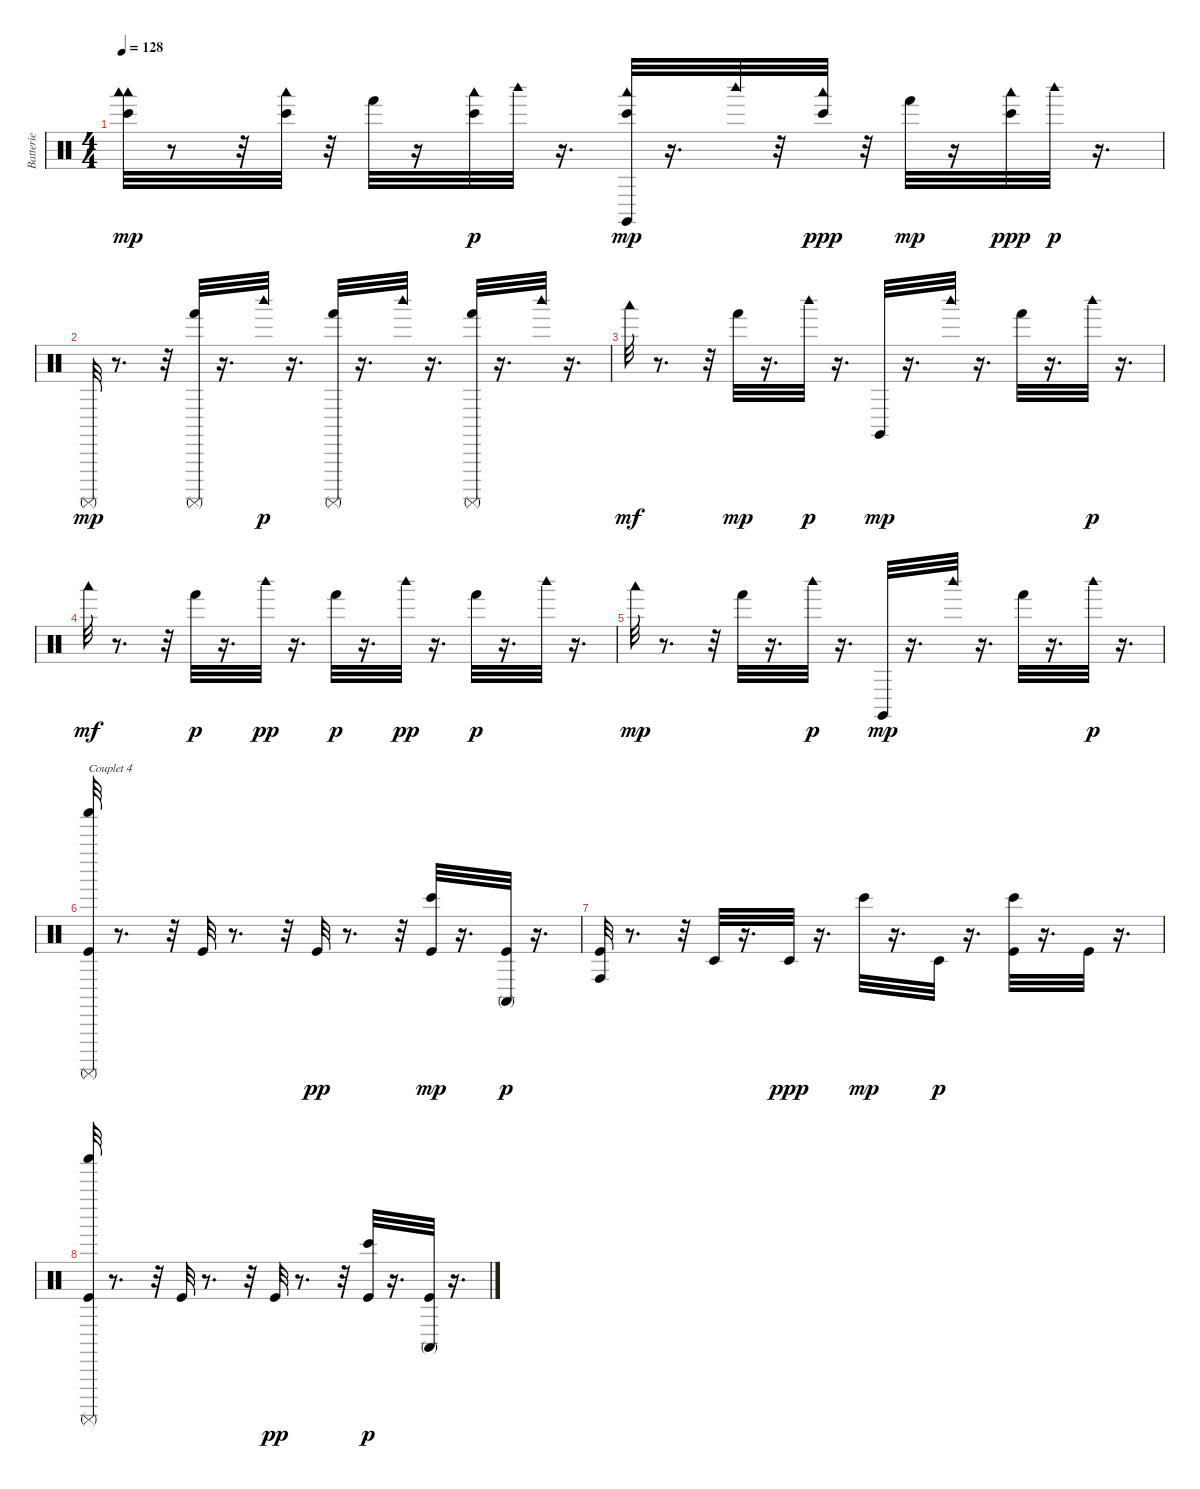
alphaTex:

\track ("Batterie" "Batterie") {instrument percussion}
\staff {score}
\articulation defaults
\ts (4 4)
\tempo 128
\clef neutral
\ks c
("Woodblock low (hit)" "Bongo High (hit)" "Woodblock low (hit)").32{dy mp} r.8 r.32 ("Woodblock low (hit)" "Bongo High (hit)").32 r.32 "Hand (hit)".32 r.16 ("Woodblock low (hit)" "Bongo High (hit)").32{dy p} "Woodblock high (hit)".32 r.16{d} ("Woodblock low (hit)" "Bongo High (hit)" "Claves (hit)").32{dy mp} r.16{d} "Woodblock high (hit)".32 r.32 ("Woodblock low (hit)" "Bongo High (hit)").32{dy ppp} r.32 "Hand (hit)".32{dy mp} r.16 ("Woodblock low (hit)" "Bongo High (hit)").32{dy ppp} "Woodblock high (hit)".32{dy p} r.16{d} |
"Surdo (mute)".32{dy mp} r.8{d} r.32 ("Surdo (mute)" "Hand (hit)").32 r.16{d} "Woodblock high (hit)".32{dy p} r.16{d} ("Hand (hit)" "Surdo (mute)").32 r.16{d} "Woodblock high (hit)".32 r.16{d} ("Hand (hit)" "Surdo (mute)").32 r.16{d} "Woodblock high (hit)".32 r.16{d} |
"Woodblock low (hit)".32{dy mf} r.8{d} r.32 "Hand (hit)".32{dy mp} r.16{d} "Woodblock high (hit)".32{dy p} r.16{d} "Claves (hit)".32{dy mp} r.16{d} "Woodblock high (hit)".32 r.16{d} "Hand (hit)".32 r.16{d} "Woodblock high (hit)".32{dy p} r.16{d} |
"Woodblock low (hit)".32{dy mf} r.8{d} r.32 "Hand (hit)".32{dy p} r.16{d} "Woodblock high (hit)".32{dy pp} r.16{d} "Hand (hit)".32{dy p} r.16{d} "Woodblock high (hit)".32{dy pp} r.16{d} "Hand (hit)".32{dy p} r.16{d} "Woodblock high (hit)".32 r.16{d} |
"Woodblock low (hit)".32{dy mp} r.8{d} r.32 "Hand (hit)".32 r.16{d} "Woodblock high (hit)".32{dy p} r.16{d} "Claves (hit)".32{dy mp} r.16{d} "Woodblock high (hit)".32 r.16{d} "Hand (hit)".32 r.16{d} "Woodblock high (hit)".32{dy p} r.16{d} |
("Shaker (hit)" "Surdo (mute)" "Kick (hit)").32{txt "Couplet 4"} r.8{d} r.32 "Kick (hit)".32 r.8{d} r.32 "Kick (hit)".32{dy pp} r.8{d} r.32 ("Kick (hit)" "Bongo High (hit)").32{dy mp} r.16{d} ("Conga high (mute)" "Kick (hit)").32{dy p} r.16{d} |
("Conga high (hit)" "Kick (hit)").32 r.8{d} r.32 "Timbale low (hit)".32 r.16{d} "Timbale low (hit)".32{dy ppp} r.16{d} "Bongo High (hit)".32{dy mp} r.16{d} "Timbale low (hit)".32{dy p} r.16{d} ("Bongo High (hit)" "Kick (hit)").32 r.16{d} "Kick (hit)".32 r.16{d} |
("Surdo (mute)" "Shaker (hit)" "Kick (hit)").32 r.8{d} r.32 "Kick (hit)".32 r.8{d} r.32 "Kick (hit)".32{dy pp} r.8{d} r.32 ("Bongo High (hit)" "Kick (hit)").32{dy p} r.16{d} ("Conga high (mute)" "Kick (hit)").32 r.16{d}
